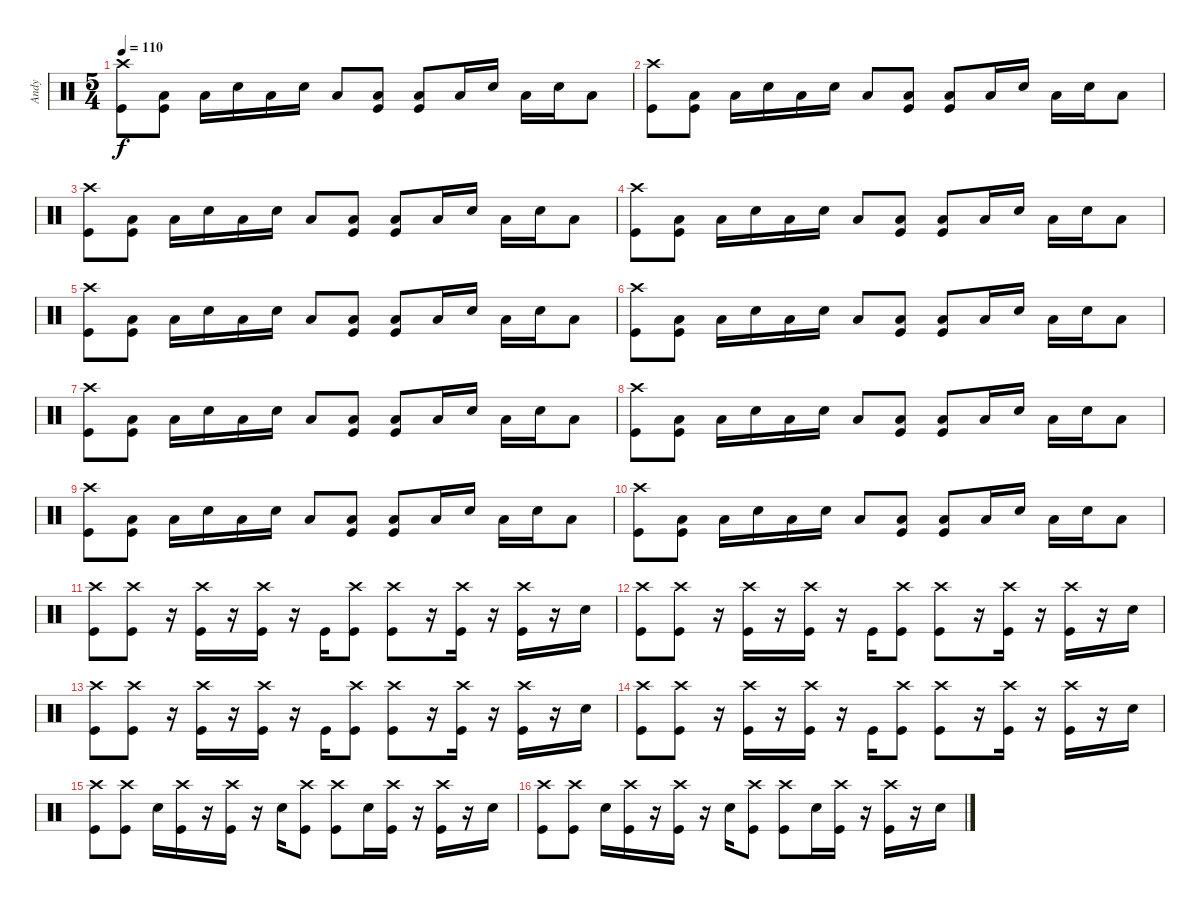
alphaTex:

\track ("Andy" "Andy") {instrument percussion}
\staff {score}
\articulation defaults
\ts (5 4)
\tempo 110
\clef neutral
\ks c
("Crash high (hit)" "Kick (hit)").8{dy f} ("Low Floor Tom (hit)" "Kick (hit)").8 "Low Floor Tom (hit)".16 "Snare (hit) 2".16 "Low Floor Tom (hit)".16 "Snare (hit) 2".16 "Low Floor Tom (hit)".8 ("Kick (hit)" "Low Floor Tom (hit)").8 ("Kick (hit)" "Low Floor Tom (hit)").8 "Low Floor Tom (hit)".16 "Snare (hit) 2".16 "Low Floor Tom (hit)".16 "Snare (hit) 2".16 "Low Floor Tom (hit)".8 |
("Crash high (hit)" "Kick (hit)").8 ("Low Floor Tom (hit)" "Kick (hit)").8 "Low Floor Tom (hit)".16 "Snare (hit) 2".16 "Low Floor Tom (hit)".16 "Snare (hit) 2".16 "Low Floor Tom (hit)".8 ("Kick (hit)" "Low Floor Tom (hit)").8 ("Kick (hit)" "Low Floor Tom (hit)").8 "Low Floor Tom (hit)".16 "Snare (hit) 2".16 "Low Floor Tom (hit)".16 "Snare (hit) 2".16 "Low Floor Tom (hit)".8 |
("Crash high (hit)" "Kick (hit)").8 ("Low Floor Tom (hit)" "Kick (hit)").8 "Low Floor Tom (hit)".16 "Snare (hit) 2".16 "Low Floor Tom (hit)".16 "Snare (hit) 2".16 "Low Floor Tom (hit)".8 ("Kick (hit)" "Low Floor Tom (hit)").8 ("Kick (hit)" "Low Floor Tom (hit)").8 "Low Floor Tom (hit)".16 "Snare (hit) 2".16 "Low Floor Tom (hit)".16 "Snare (hit) 2".16 "Low Floor Tom (hit)".8 |
("Crash high (hit)" "Kick (hit)").8 ("Low Floor Tom (hit)" "Kick (hit)").8 "Low Floor Tom (hit)".16 "Snare (hit) 2".16 "Low Floor Tom (hit)".16 "Snare (hit) 2".16 "Low Floor Tom (hit)".8 ("Kick (hit)" "Low Floor Tom (hit)").8 ("Kick (hit)" "Low Floor Tom (hit)").8 "Low Floor Tom (hit)".16 "Snare (hit) 2".16 "Low Floor Tom (hit)".16 "Snare (hit) 2".16 "Low Floor Tom (hit)".8 |
("Crash high (hit)" "Kick (hit)").8 ("Low Floor Tom (hit)" "Kick (hit)").8 "Low Floor Tom (hit)".16 "Snare (hit) 2".16 "Low Floor Tom (hit)".16 "Snare (hit) 2".16 "Low Floor Tom (hit)".8 ("Kick (hit)" "Low Floor Tom (hit)").8 ("Kick (hit)" "Low Floor Tom (hit)").8 "Low Floor Tom (hit)".16 "Snare (hit) 2".16 "Low Floor Tom (hit)".16 "Snare (hit) 2".16 "Low Floor Tom (hit)".8 |
("Crash high (hit)" "Kick (hit)").8 ("Low Floor Tom (hit)" "Kick (hit)").8 "Low Floor Tom (hit)".16 "Snare (hit) 2".16 "Low Floor Tom (hit)".16 "Snare (hit) 2".16 "Low Floor Tom (hit)".8 ("Kick (hit)" "Low Floor Tom (hit)").8 ("Kick (hit)" "Low Floor Tom (hit)").8 "Low Floor Tom (hit)".16 "Snare (hit) 2".16 "Low Floor Tom (hit)".16 "Snare (hit) 2".16 "Low Floor Tom (hit)".8 |
("Crash high (hit)" "Kick (hit)").8 ("Low Floor Tom (hit)" "Kick (hit)").8 "Low Floor Tom (hit)".16 "Snare (hit) 2".16 "Low Floor Tom (hit)".16 "Snare (hit) 2".16 "Low Floor Tom (hit)".8 ("Kick (hit)" "Low Floor Tom (hit)").8 ("Kick (hit)" "Low Floor Tom (hit)").8 "Low Floor Tom (hit)".16 "Snare (hit) 2".16 "Low Floor Tom (hit)".16 "Snare (hit) 2".16 "Low Floor Tom (hit)".8 |
("Crash high (hit)" "Kick (hit)").8 ("Low Floor Tom (hit)" "Kick (hit)").8 "Low Floor Tom (hit)".16 "Snare (hit) 2".16 "Low Floor Tom (hit)".16 "Snare (hit) 2".16 "Low Floor Tom (hit)".8 ("Kick (hit)" "Low Floor Tom (hit)").8 ("Kick (hit)" "Low Floor Tom (hit)").8 "Low Floor Tom (hit)".16 "Snare (hit) 2".16 "Low Floor Tom (hit)".16 "Snare (hit) 2".16 "Low Floor Tom (hit)".8 |
("Crash high (hit)" "Kick (hit)").8 ("Low Floor Tom (hit)" "Kick (hit)").8 "Low Floor Tom (hit)".16 "Snare (hit) 2".16 "Low Floor Tom (hit)".16 "Snare (hit) 2".16 "Low Floor Tom (hit)".8 ("Kick (hit)" "Low Floor Tom (hit)").8 ("Kick (hit)" "Low Floor Tom (hit)").8 "Low Floor Tom (hit)".16 "Snare (hit) 2".16 "Low Floor Tom (hit)".16 "Snare (hit) 2".16 "Low Floor Tom (hit)".8 |
("Crash high (hit)" "Kick (hit)").8 ("Low Floor Tom (hit)" "Kick (hit)").8 "Low Floor Tom (hit)".16 "Snare (hit) 2".16 "Low Floor Tom (hit)".16 "Snare (hit) 2".16 "Low Floor Tom (hit)".8 ("Kick (hit)" "Low Floor Tom (hit)").8 ("Kick (hit)" "Low Floor Tom (hit)").8 "Low Floor Tom (hit)".16 "Snare (hit) 2".16 "Low Floor Tom (hit)".16 "Snare (hit) 2".16 "Low Floor Tom (hit)".8 |
("Crash high (hit)" "Kick (hit)").8 ("Crash high (hit)" "Kick (hit)").8 r.16 ("Kick (hit)" "Crash high (hit)").16 r.16 ("Kick (hit)" "Crash high (hit)").16 r.16 "Kick (hit)".16 ("Kick (hit)" "Crash high (hit)").8 ("Kick (hit)" "Crash high (hit)").8 r.16 ("Kick (hit)" "Crash high (hit)").16 r.16 ("Kick (hit)" "Crash high (hit)").16 r.16 "Snare (hit) 2".16 |
("Crash high (hit)" "Kick (hit)").8 ("Crash high (hit)" "Kick (hit)").8 r.16 ("Kick (hit)" "Crash high (hit)").16 r.16 ("Kick (hit)" "Crash high (hit)").16 r.16 "Kick (hit)".16 ("Kick (hit)" "Crash high (hit)").8 ("Kick (hit)" "Crash high (hit)").8 r.16 ("Kick (hit)" "Crash high (hit)").16 r.16 ("Kick (hit)" "Crash high (hit)").16 r.16 "Snare (hit) 2".16 |
("Crash high (hit)" "Kick (hit)").8 ("Crash high (hit)" "Kick (hit)").8 r.16 ("Kick (hit)" "Crash high (hit)").16 r.16 ("Kick (hit)" "Crash high (hit)").16 r.16 "Kick (hit)".16 ("Kick (hit)" "Crash high (hit)").8 ("Kick (hit)" "Crash high (hit)").8 r.16 ("Kick (hit)" "Crash high (hit)").16 r.16 ("Kick (hit)" "Crash high (hit)").16 r.16 "Snare (hit) 2".16 |
("Crash high (hit)" "Kick (hit)").8 ("Crash high (hit)" "Kick (hit)").8 r.16 ("Kick (hit)" "Crash high (hit)").16 r.16 ("Kick (hit)" "Crash high (hit)").16 r.16 "Kick (hit)".16 ("Kick (hit)" "Crash high (hit)").8 ("Kick (hit)" "Crash high (hit)").8 r.16 ("Kick (hit)" "Crash high (hit)").16 r.16 ("Kick (hit)" "Crash high (hit)").16 r.16 "Snare (hit) 2".16 |
("Crash high (hit)" "Kick (hit)").8 ("Crash high (hit)" "Kick (hit)").8 "Snare (hit) 2".16 ("Kick (hit)" "Crash high (hit)").16 r.16 ("Kick (hit)" "Crash high (hit)").16 r.16 "Snare (hit) 2".16 ("Kick (hit)" "Crash high (hit)").8 ("Kick (hit)" "Crash high (hit)").8 "Snare (hit) 2".16 ("Kick (hit)" "Crash high (hit)").16 r.16 ("Kick (hit)" "Crash high (hit)").16 r.16 "Snare (hit) 2".16 |
("Crash high (hit)" "Kick (hit)").8 ("Crash high (hit)" "Kick (hit)").8 "Snare (hit) 2".16 ("Kick (hit)" "Crash high (hit)").16 r.16 ("Kick (hit)" "Crash high (hit)").16 r.16 "Snare (hit) 2".16 ("Kick (hit)" "Crash high (hit)").8 ("Kick (hit)" "Crash high (hit)").8 "Snare (hit) 2".16 ("Kick (hit)" "Crash high (hit)").16 r.16 ("Kick (hit)" "Crash high (hit)").16 r.16 "Snare (hit) 2".16
